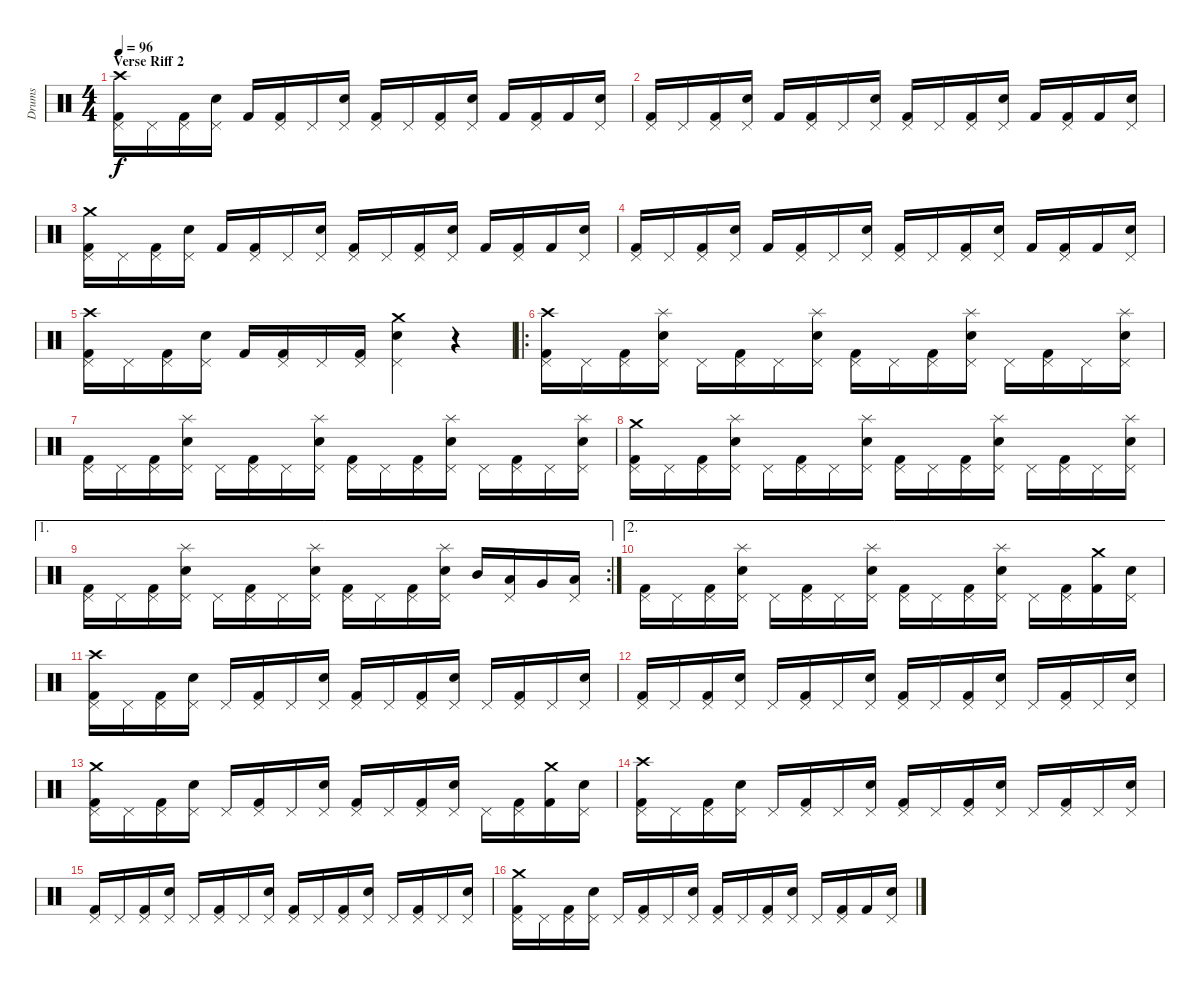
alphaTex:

\track ("Drums" "Drums") {instrument percussion}
\staff {score}
\articulation defaults
\ts (4 4)
\section ("" "Verse Riff 2")
\tempo 96
\clef neutral
\ks c
("Kick (hit) 2" "Pedal Hi-Hat (hit)" "Crash high (hit)").16{dy f} "Pedal Hi-Hat (hit)".16 ("Kick (hit) 2" "Pedal Hi-Hat (hit)").16 ("Snare (hit) 2" "Pedal Hi-Hat (hit)").16 "Kick (hit) 2".16 ("Kick (hit) 2" "Pedal Hi-Hat (hit)").16 "Pedal Hi-Hat (hit)".16 ("Snare (hit) 2" "Pedal Hi-Hat (hit)").16 ("Kick (hit) 2" "Pedal Hi-Hat (hit)").16 "Pedal Hi-Hat (hit)".16 ("Kick (hit) 2" "Pedal Hi-Hat (hit)").16 ("Snare (hit) 2" "Pedal Hi-Hat (hit)").16 "Kick (hit) 2".16 ("Kick (hit) 2" "Pedal Hi-Hat (hit)").16 "Kick (hit) 2".16 ("Snare (hit) 2" "Pedal Hi-Hat (hit)").16 |
("Kick (hit) 2" "Pedal Hi-Hat (hit)").16 "Pedal Hi-Hat (hit)".16 ("Kick (hit) 2" "Pedal Hi-Hat (hit)").16 ("Snare (hit) 2" "Pedal Hi-Hat (hit)").16 "Kick (hit) 2".16 ("Kick (hit) 2" "Pedal Hi-Hat (hit)").16 "Pedal Hi-Hat (hit)".16 ("Snare (hit) 2" "Pedal Hi-Hat (hit)").16 ("Kick (hit) 2" "Pedal Hi-Hat (hit)").16 "Pedal Hi-Hat (hit)".16 ("Kick (hit) 2" "Pedal Hi-Hat (hit)").16 ("Snare (hit) 2" "Pedal Hi-Hat (hit)").16 "Kick (hit) 2".16 ("Kick (hit) 2" "Pedal Hi-Hat (hit)").16 "Kick (hit) 2".16 ("Snare (hit) 2" "Pedal Hi-Hat (hit)").16 |
("Kick (hit) 2" "Pedal Hi-Hat (hit)" "Crash medium (hit)").16 "Pedal Hi-Hat (hit)".16 ("Kick (hit) 2" "Pedal Hi-Hat (hit)").16 ("Snare (hit) 2" "Pedal Hi-Hat (hit)").16 "Kick (hit) 2".16 ("Kick (hit) 2" "Pedal Hi-Hat (hit)").16 "Pedal Hi-Hat (hit)".16 ("Snare (hit) 2" "Pedal Hi-Hat (hit)").16 ("Kick (hit) 2" "Pedal Hi-Hat (hit)").16 "Pedal Hi-Hat (hit)".16 ("Kick (hit) 2" "Pedal Hi-Hat (hit)").16 ("Snare (hit) 2" "Pedal Hi-Hat (hit)").16 "Kick (hit) 2".16 ("Kick (hit) 2" "Pedal Hi-Hat (hit)").16 "Kick (hit) 2".16 ("Snare (hit) 2" "Pedal Hi-Hat (hit)").16 |
("Kick (hit) 2" "Pedal Hi-Hat (hit)").16 "Pedal Hi-Hat (hit)".16 ("Kick (hit) 2" "Pedal Hi-Hat (hit)").16 ("Snare (hit) 2" "Pedal Hi-Hat (hit)").16 "Kick (hit) 2".16 ("Kick (hit) 2" "Pedal Hi-Hat (hit)").16 "Pedal Hi-Hat (hit)".16 ("Snare (hit) 2" "Pedal Hi-Hat (hit)").16 ("Kick (hit) 2" "Pedal Hi-Hat (hit)").16 "Pedal Hi-Hat (hit)".16 ("Kick (hit) 2" "Pedal Hi-Hat (hit)").16 ("Snare (hit) 2" "Pedal Hi-Hat (hit)").16 "Kick (hit) 2".16 ("Kick (hit) 2" "Pedal Hi-Hat (hit)").16 "Kick (hit) 2".16 ("Snare (hit) 2" "Pedal Hi-Hat (hit)").16 |
("Kick (hit) 2" "Pedal Hi-Hat (hit)" "Crash high (hit)").16 "Pedal Hi-Hat (hit)".16 ("Kick (hit) 2" "Pedal Hi-Hat (hit)").16 ("Snare (hit) 2" "Pedal Hi-Hat (hit)").16 "Kick (hit) 2".16 ("Kick (hit) 2" "Pedal Hi-Hat (hit)").16 "Pedal Hi-Hat (hit)".16 ("Kick (hit) 2" "Pedal Hi-Hat (hit)").16 ("Snare (hit) 2" "Pedal Hi-Hat (hit)" "Crash medium (hit)").4 r.4 |
\ro
("Kick (hit) 2" "Pedal Hi-Hat (hit)" "Crash high (hit)").16 "Pedal Hi-Hat (hit)".16 ("Kick (hit) 2" "Pedal Hi-Hat (hit)").16 ("Snare (hit) 2" "Pedal Hi-Hat (hit)" "Splash (hit)").16 "Pedal Hi-Hat (hit)".16 ("Kick (hit) 2" "Pedal Hi-Hat (hit)").16 "Pedal Hi-Hat (hit)".16 ("Snare (hit) 2" "Pedal Hi-Hat (hit)" "Splash (hit)").16 ("Kick (hit) 2" "Pedal Hi-Hat (hit)").16 "Pedal Hi-Hat (hit)".16 ("Kick (hit) 2" "Pedal Hi-Hat (hit)").16 ("Snare (hit) 2" "Pedal Hi-Hat (hit)" "Splash (hit)").16 "Pedal Hi-Hat (hit)".16 ("Kick (hit) 2" "Pedal Hi-Hat (hit)").16 "Pedal Hi-Hat (hit)".16 ("Snare (hit) 2" "Pedal Hi-Hat (hit)" "Splash (hit)").16 |
("Kick (hit) 2" "Pedal Hi-Hat (hit)").16 "Pedal Hi-Hat (hit)".16 ("Kick (hit) 2" "Pedal Hi-Hat (hit)").16 ("Snare (hit) 2" "Pedal Hi-Hat (hit)" "Splash (hit)").16 "Pedal Hi-Hat (hit)".16 ("Kick (hit) 2" "Pedal Hi-Hat (hit)").16 "Pedal Hi-Hat (hit)".16 ("Snare (hit) 2" "Pedal Hi-Hat (hit)" "Splash (hit)").16 ("Kick (hit) 2" "Pedal Hi-Hat (hit)").16 "Pedal Hi-Hat (hit)".16 ("Kick (hit) 2" "Pedal Hi-Hat (hit)").16 ("Snare (hit) 2" "Pedal Hi-Hat (hit)" "Splash (hit)").16 "Pedal Hi-Hat (hit)".16 ("Kick (hit) 2" "Pedal Hi-Hat (hit)").16 "Pedal Hi-Hat (hit)".16 ("Snare (hit) 2" "Pedal Hi-Hat (hit)" "Splash (hit)").16 |
("Kick (hit) 2" "Pedal Hi-Hat (hit)" "Crash medium (hit)").16 "Pedal Hi-Hat (hit)".16 ("Kick (hit) 2" "Pedal Hi-Hat (hit)").16 ("Snare (hit) 2" "Pedal Hi-Hat (hit)" "Splash (hit)").16 "Pedal Hi-Hat (hit)".16 ("Kick (hit) 2" "Pedal Hi-Hat (hit)").16 "Pedal Hi-Hat (hit)".16 ("Snare (hit) 2" "Pedal Hi-Hat (hit)" "Splash (hit)").16 ("Kick (hit) 2" "Pedal Hi-Hat (hit)").16 "Pedal Hi-Hat (hit)".16 ("Kick (hit) 2" "Pedal Hi-Hat (hit)").16 ("Snare (hit) 2" "Pedal Hi-Hat (hit)" "Splash (hit)").16 "Pedal Hi-Hat (hit)".16 ("Kick (hit) 2" "Pedal Hi-Hat (hit)").16 "Pedal Hi-Hat (hit)".16 ("Snare (hit) 2" "Pedal Hi-Hat (hit)" "Splash (hit)").16 |
\ae 1
\rc 2
("Kick (hit) 2" "Pedal Hi-Hat (hit)").16 "Pedal Hi-Hat (hit)".16 ("Kick (hit) 2" "Pedal Hi-Hat (hit)").16 ("Snare (hit) 2" "Pedal Hi-Hat (hit)" "Splash (hit)").16 "Pedal Hi-Hat (hit)".16 ("Kick (hit) 2" "Pedal Hi-Hat (hit)").16 "Pedal Hi-Hat (hit)".16 ("Snare (hit) 2" "Pedal Hi-Hat (hit)" "Splash (hit)").16 ("Kick (hit) 2" "Pedal Hi-Hat (hit)").16 "Pedal Hi-Hat (hit)".16 ("Kick (hit) 2" "Pedal Hi-Hat (hit)").16 ("Snare (hit) 2" "Pedal Hi-Hat (hit)" "Splash (hit)").16 "Mid Tom (hit)".16 ("Low Tom (hit)" "Pedal Hi-Hat (hit)").16 "Very Low Tom (hit)".16 ("Low Floor Tom (hit)" "Pedal Hi-Hat (hit)").16 |
\ae 2
("Kick (hit) 2" "Pedal Hi-Hat (hit)").16 "Pedal Hi-Hat (hit)".16 ("Kick (hit) 2" "Pedal Hi-Hat (hit)").16 ("Snare (hit) 2" "Pedal Hi-Hat (hit)" "Splash (hit)").16 "Pedal Hi-Hat (hit)".16 ("Kick (hit) 2" "Pedal Hi-Hat (hit)").16 "Pedal Hi-Hat (hit)".16 ("Snare (hit) 2" "Pedal Hi-Hat (hit)" "Splash (hit)").16 ("Kick (hit) 2" "Pedal Hi-Hat (hit)").16 "Pedal Hi-Hat (hit)".16 ("Kick (hit) 2" "Pedal Hi-Hat (hit)").16 ("Snare (hit) 2" "Pedal Hi-Hat (hit)" "Splash (hit)").16 "Pedal Hi-Hat (hit)".16 ("Kick (hit) 2" "Pedal Hi-Hat (hit)").16 ("Kick (hit) 2" "Crash medium (hit)").16 ("Snare (hit) 2" "Pedal Hi-Hat (hit)").16 |
("Kick (hit) 2" "Pedal Hi-Hat (hit)" "Crash high (hit)").16 "Pedal Hi-Hat (hit)".16 ("Kick (hit) 2" "Pedal Hi-Hat (hit)").16 ("Snare (hit) 2" "Pedal Hi-Hat (hit)").16 "Pedal Hi-Hat (hit)".16 ("Kick (hit) 2" "Pedal Hi-Hat (hit)").16 "Pedal Hi-Hat (hit)".16 ("Snare (hit) 2" "Pedal Hi-Hat (hit)").16 ("Kick (hit) 2" "Pedal Hi-Hat (hit)").16 "Pedal Hi-Hat (hit)".16 ("Kick (hit) 2" "Pedal Hi-Hat (hit)").16 ("Snare (hit) 2" "Pedal Hi-Hat (hit)").16 "Pedal Hi-Hat (hit)".16 ("Kick (hit) 2" "Pedal Hi-Hat (hit)").16 "Pedal Hi-Hat (hit)".16 ("Snare (hit) 2" "Pedal Hi-Hat (hit)").16 |
("Kick (hit) 2" "Pedal Hi-Hat (hit)").16 "Pedal Hi-Hat (hit)".16 ("Kick (hit) 2" "Pedal Hi-Hat (hit)").16 ("Snare (hit) 2" "Pedal Hi-Hat (hit)").16 "Pedal Hi-Hat (hit)".16 ("Kick (hit) 2" "Pedal Hi-Hat (hit)").16 "Pedal Hi-Hat (hit)".16 ("Snare (hit) 2" "Pedal Hi-Hat (hit)").16 ("Kick (hit) 2" "Pedal Hi-Hat (hit)").16 "Pedal Hi-Hat (hit)".16 ("Kick (hit) 2" "Pedal Hi-Hat (hit)").16 ("Snare (hit) 2" "Pedal Hi-Hat (hit)").16 "Pedal Hi-Hat (hit)".16 ("Kick (hit) 2" "Pedal Hi-Hat (hit)").16 "Pedal Hi-Hat (hit)".16 ("Snare (hit) 2" "Pedal Hi-Hat (hit)").16 |
("Kick (hit) 2" "Pedal Hi-Hat (hit)" "Crash medium (hit)").16 "Pedal Hi-Hat (hit)".16 ("Kick (hit) 2" "Pedal Hi-Hat (hit)").16 ("Snare (hit) 2" "Pedal Hi-Hat (hit)").16 "Pedal Hi-Hat (hit)".16 ("Kick (hit) 2" "Pedal Hi-Hat (hit)").16 "Pedal Hi-Hat (hit)".16 ("Snare (hit) 2" "Pedal Hi-Hat (hit)").16 ("Kick (hit) 2" "Pedal Hi-Hat (hit)").16 "Pedal Hi-Hat (hit)".16 ("Kick (hit) 2" "Pedal Hi-Hat (hit)").16 ("Snare (hit) 2" "Pedal Hi-Hat (hit)").16 "Pedal Hi-Hat (hit)".16 ("Kick (hit) 2" "Pedal Hi-Hat (hit)").16 ("Kick (hit) 2" "Crash medium (hit)").16 ("Snare (hit) 2" "Pedal Hi-Hat (hit)").16 |
("Kick (hit) 2" "Pedal Hi-Hat (hit)" "Crash high (hit)").16 "Pedal Hi-Hat (hit)".16 ("Kick (hit) 2" "Pedal Hi-Hat (hit)").16 ("Snare (hit) 2" "Pedal Hi-Hat (hit)").16 "Pedal Hi-Hat (hit)".16 ("Kick (hit) 2" "Pedal Hi-Hat (hit)").16 "Pedal Hi-Hat (hit)".16 ("Snare (hit) 2" "Pedal Hi-Hat (hit)").16 ("Kick (hit) 2" "Pedal Hi-Hat (hit)").16 "Pedal Hi-Hat (hit)".16 ("Kick (hit) 2" "Pedal Hi-Hat (hit)").16 ("Snare (hit) 2" "Pedal Hi-Hat (hit)").16 "Pedal Hi-Hat (hit)".16 ("Kick (hit) 2" "Pedal Hi-Hat (hit)").16 "Pedal Hi-Hat (hit)".16 ("Snare (hit) 2" "Pedal Hi-Hat (hit)").16 |
("Kick (hit) 2" "Pedal Hi-Hat (hit)").16 "Pedal Hi-Hat (hit)".16 ("Kick (hit) 2" "Pedal Hi-Hat (hit)").16 ("Snare (hit) 2" "Pedal Hi-Hat (hit)").16 "Pedal Hi-Hat (hit)".16 ("Kick (hit) 2" "Pedal Hi-Hat (hit)").16 "Pedal Hi-Hat (hit)".16 ("Snare (hit) 2" "Pedal Hi-Hat (hit)").16 ("Kick (hit) 2" "Pedal Hi-Hat (hit)").16 "Pedal Hi-Hat (hit)".16 ("Kick (hit) 2" "Pedal Hi-Hat (hit)").16 ("Snare (hit) 2" "Pedal Hi-Hat (hit)").16 "Pedal Hi-Hat (hit)".16 ("Kick (hit) 2" "Pedal Hi-Hat (hit)").16 "Pedal Hi-Hat (hit)".16 ("Snare (hit) 2" "Pedal Hi-Hat (hit)").16 |
("Kick (hit) 2" "Pedal Hi-Hat (hit)" "Crash medium (hit)").16 "Pedal Hi-Hat (hit)".16 ("Kick (hit) 2" "Pedal Hi-Hat (hit)").16 ("Snare (hit) 2" "Pedal Hi-Hat (hit)").16 "Pedal Hi-Hat (hit)".16 ("Kick (hit) 2" "Pedal Hi-Hat (hit)").16 "Pedal Hi-Hat (hit)".16 ("Snare (hit) 2" "Pedal Hi-Hat (hit)").16 ("Kick (hit) 2" "Pedal Hi-Hat (hit)").16 "Pedal Hi-Hat (hit)".16 ("Kick (hit) 2" "Pedal Hi-Hat (hit)").16 ("Snare (hit) 2" "Pedal Hi-Hat (hit)").16 "Pedal Hi-Hat (hit)".16 ("Kick (hit) 2" "Pedal Hi-Hat (hit)").16 "Kick (hit) 2".16 ("Snare (hit) 2" "Pedal Hi-Hat (hit)").16
